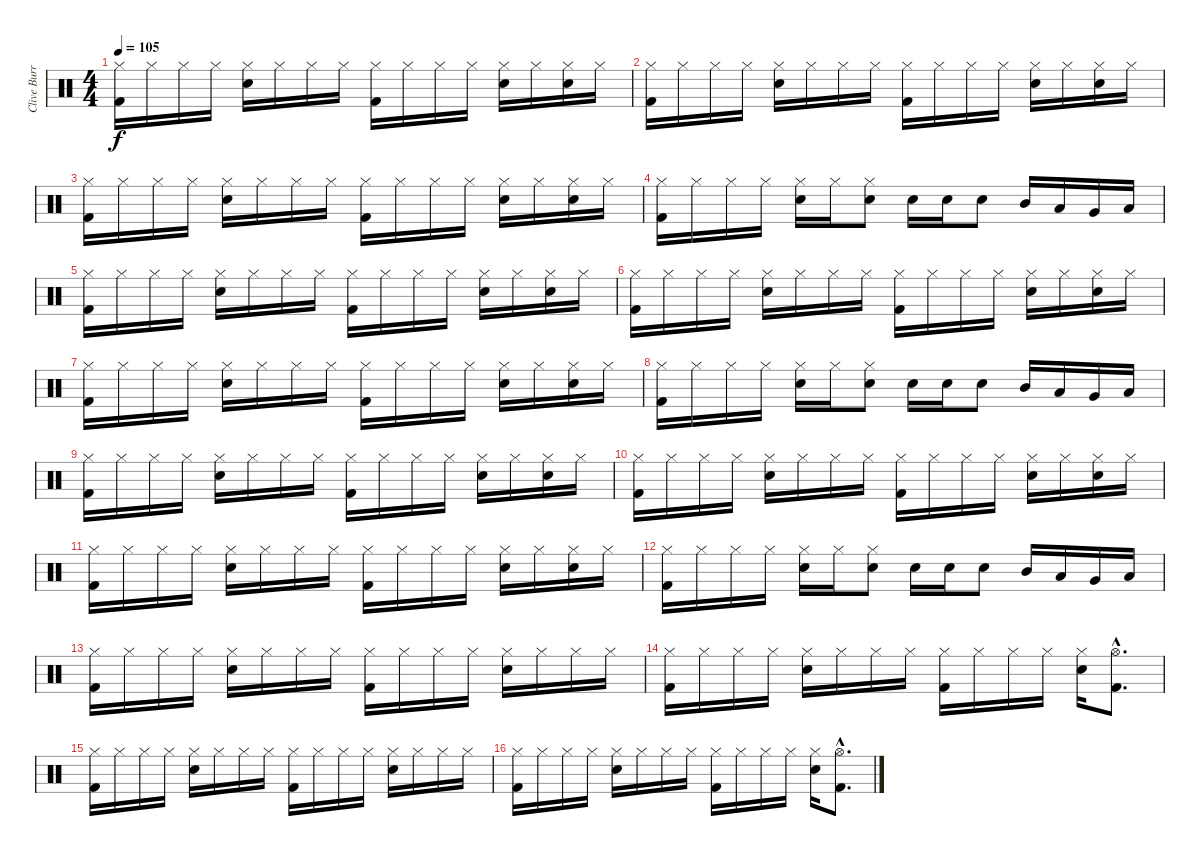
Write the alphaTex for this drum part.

\track ("Clive Burr (Drums)" "Clive Burr") {instrument percussion}
\staff {score}
\articulation defaults
\ts (4 4)
\tempo 105
\clef neutral
\ks c
("Hi-Hat (closed)" "Kick (hit) 2").16{dy f} "Hi-Hat (closed)".16 "Hi-Hat (closed)".16 "Hi-Hat (closed)".16 ("Electric Snare (hit)" "Hi-Hat (closed)").16 "Hi-Hat (closed)".16 "Hi-Hat (closed)".16 "Hi-Hat (closed)".16 ("Hi-Hat (closed)" "Kick (hit) 2").16 "Hi-Hat (closed)".16 "Hi-Hat (closed)".16 "Hi-Hat (closed)".16 ("Electric Snare (hit)" "Hi-Hat (closed)").16 "Hi-Hat (closed)".16 ("Electric Snare (hit)" "Hi-Hat (closed)").16 "Hi-Hat (closed)".16 |
("Hi-Hat (closed)" "Kick (hit) 2").16 "Hi-Hat (closed)".16 "Hi-Hat (closed)".16 "Hi-Hat (closed)".16 ("Electric Snare (hit)" "Hi-Hat (closed)").16 "Hi-Hat (closed)".16 "Hi-Hat (closed)".16 "Hi-Hat (closed)".16 ("Hi-Hat (closed)" "Kick (hit) 2").16 "Hi-Hat (closed)".16 "Hi-Hat (closed)".16 "Hi-Hat (closed)".16 ("Electric Snare (hit)" "Hi-Hat (closed)").16 "Hi-Hat (closed)".16 ("Electric Snare (hit)" "Hi-Hat (closed)").16 "Hi-Hat (closed)".16 |
("Hi-Hat (closed)" "Kick (hit) 2").16 "Hi-Hat (closed)".16 "Hi-Hat (closed)".16 "Hi-Hat (closed)".16 ("Electric Snare (hit)" "Hi-Hat (closed)").16 "Hi-Hat (closed)".16 "Hi-Hat (closed)".16 "Hi-Hat (closed)".16 ("Hi-Hat (closed)" "Kick (hit) 2").16 "Hi-Hat (closed)".16 "Hi-Hat (closed)".16 "Hi-Hat (closed)".16 ("Electric Snare (hit)" "Hi-Hat (closed)").16 "Hi-Hat (closed)".16 ("Electric Snare (hit)" "Hi-Hat (closed)").16 "Hi-Hat (closed)".16 |
("Hi-Hat (closed)" "Kick (hit) 2").16 "Hi-Hat (closed)".16 "Hi-Hat (closed)".16 "Hi-Hat (closed)".16 ("Electric Snare (hit)" "Hi-Hat (closed)").16 "Hi-Hat (closed)".16 ("Electric Snare (hit)" "Hi-Hat (closed)").8 "Electric Snare (hit)".16 "Electric Snare (hit)".16 "Electric Snare (hit)".8 "Mid Tom (hit)".16 "Low Tom (hit)".16 "Very Low Tom (hit)".16 "Low Tom (hit)".16 |
("Hi-Hat (closed)" "Kick (hit) 2").16 "Hi-Hat (closed)".16 "Hi-Hat (closed)".16 "Hi-Hat (closed)".16 ("Electric Snare (hit)" "Hi-Hat (closed)").16 "Hi-Hat (closed)".16 "Hi-Hat (closed)".16 "Hi-Hat (closed)".16 ("Hi-Hat (closed)" "Kick (hit) 2").16 "Hi-Hat (closed)".16 "Hi-Hat (closed)".16 "Hi-Hat (closed)".16 ("Electric Snare (hit)" "Hi-Hat (closed)").16 "Hi-Hat (closed)".16 ("Electric Snare (hit)" "Hi-Hat (closed)").16 "Hi-Hat (closed)".16 |
("Hi-Hat (closed)" "Kick (hit) 2").16 "Hi-Hat (closed)".16 "Hi-Hat (closed)".16 "Hi-Hat (closed)".16 ("Electric Snare (hit)" "Hi-Hat (closed)").16 "Hi-Hat (closed)".16 "Hi-Hat (closed)".16 "Hi-Hat (closed)".16 ("Hi-Hat (closed)" "Kick (hit) 2").16 "Hi-Hat (closed)".16 "Hi-Hat (closed)".16 "Hi-Hat (closed)".16 ("Electric Snare (hit)" "Hi-Hat (closed)").16 "Hi-Hat (closed)".16 ("Electric Snare (hit)" "Hi-Hat (closed)").16 "Hi-Hat (closed)".16 |
("Hi-Hat (closed)" "Kick (hit) 2").16 "Hi-Hat (closed)".16 "Hi-Hat (closed)".16 "Hi-Hat (closed)".16 ("Electric Snare (hit)" "Hi-Hat (closed)").16 "Hi-Hat (closed)".16 "Hi-Hat (closed)".16 "Hi-Hat (closed)".16 ("Hi-Hat (closed)" "Kick (hit) 2").16 "Hi-Hat (closed)".16 "Hi-Hat (closed)".16 "Hi-Hat (closed)".16 ("Electric Snare (hit)" "Hi-Hat (closed)").16 "Hi-Hat (closed)".16 ("Electric Snare (hit)" "Hi-Hat (closed)").16 "Hi-Hat (closed)".16 |
("Hi-Hat (closed)" "Kick (hit) 2").16 "Hi-Hat (closed)".16 "Hi-Hat (closed)".16 "Hi-Hat (closed)".16 ("Electric Snare (hit)" "Hi-Hat (closed)").16 "Hi-Hat (closed)".16 ("Electric Snare (hit)" "Hi-Hat (closed)").8 "Electric Snare (hit)".16 "Electric Snare (hit)".16 "Electric Snare (hit)".8 "Mid Tom (hit)".16 "Low Tom (hit)".16 "Very Low Tom (hit)".16 "Low Tom (hit)".16 |
("Hi-Hat (closed)" "Kick (hit) 2").16 "Hi-Hat (closed)".16 "Hi-Hat (closed)".16 "Hi-Hat (closed)".16 ("Electric Snare (hit)" "Hi-Hat (closed)").16 "Hi-Hat (closed)".16 "Hi-Hat (closed)".16 "Hi-Hat (closed)".16 ("Hi-Hat (closed)" "Kick (hit) 2").16 "Hi-Hat (closed)".16 "Hi-Hat (closed)".16 "Hi-Hat (closed)".16 ("Electric Snare (hit)" "Hi-Hat (closed)").16 "Hi-Hat (closed)".16 ("Electric Snare (hit)" "Hi-Hat (closed)").16 "Hi-Hat (closed)".16 |
("Hi-Hat (closed)" "Kick (hit) 2").16 "Hi-Hat (closed)".16 "Hi-Hat (closed)".16 "Hi-Hat (closed)".16 ("Electric Snare (hit)" "Hi-Hat (closed)").16 "Hi-Hat (closed)".16 "Hi-Hat (closed)".16 "Hi-Hat (closed)".16 ("Hi-Hat (closed)" "Kick (hit) 2").16 "Hi-Hat (closed)".16 "Hi-Hat (closed)".16 "Hi-Hat (closed)".16 ("Electric Snare (hit)" "Hi-Hat (closed)").16 "Hi-Hat (closed)".16 ("Electric Snare (hit)" "Hi-Hat (closed)").16 "Hi-Hat (closed)".16 |
("Hi-Hat (closed)" "Kick (hit) 2").16 "Hi-Hat (closed)".16 "Hi-Hat (closed)".16 "Hi-Hat (closed)".16 ("Electric Snare (hit)" "Hi-Hat (closed)").16 "Hi-Hat (closed)".16 "Hi-Hat (closed)".16 "Hi-Hat (closed)".16 ("Hi-Hat (closed)" "Kick (hit) 2").16 "Hi-Hat (closed)".16 "Hi-Hat (closed)".16 "Hi-Hat (closed)".16 ("Electric Snare (hit)" "Hi-Hat (closed)").16 "Hi-Hat (closed)".16 ("Electric Snare (hit)" "Hi-Hat (closed)").16 "Hi-Hat (closed)".16 |
("Hi-Hat (closed)" "Kick (hit) 2").16 "Hi-Hat (closed)".16 "Hi-Hat (closed)".16 "Hi-Hat (closed)".16 ("Electric Snare (hit)" "Hi-Hat (closed)").16 "Hi-Hat (closed)".16 ("Electric Snare (hit)" "Hi-Hat (closed)").8 "Electric Snare (hit)".16 "Electric Snare (hit)".16 "Electric Snare (hit)".8 "Mid Tom (hit)".16 "Low Tom (hit)".16 "Very Low Tom (hit)".16 "Low Tom (hit)".16 |
\section ("" "")
("Hi-Hat (closed)" "Kick (hit) 2").16 "Hi-Hat (closed)".16 "Hi-Hat (closed)".16 "Hi-Hat (closed)".16 ("Electric Snare (hit)" "Hi-Hat (closed)").16 "Hi-Hat (closed)".16 "Hi-Hat (closed)".16 "Hi-Hat (closed)".16 ("Hi-Hat (closed)" "Kick (hit) 2").16 "Hi-Hat (closed)".16 "Hi-Hat (closed)".16 "Hi-Hat (closed)".16 ("Electric Snare (hit)" "Hi-Hat (closed)").16 "Hi-Hat (closed)".16 "Hi-Hat (closed)".16 "Hi-Hat (closed)".16 |
("Hi-Hat (closed)" "Kick (hit) 2").16 "Hi-Hat (closed)".16 "Hi-Hat (closed)".16 "Hi-Hat (closed)".16 ("Electric Snare (hit)" "Hi-Hat (closed)").16 "Hi-Hat (closed)".16 "Hi-Hat (closed)".16 "Hi-Hat (closed)".16 ("Hi-Hat (closed)" "Kick (hit) 2").16 "Hi-Hat (closed)".16 "Hi-Hat (closed)".16 "Hi-Hat (closed)".16 ("Electric Snare (hit)" "Hi-Hat (closed)").16 ("Hi-Hat (open)"{hac} "Kick (hit) 2"{hac}).8{d} |
("Hi-Hat (closed)" "Kick (hit) 2").16 "Hi-Hat (closed)".16 "Hi-Hat (closed)".16 "Hi-Hat (closed)".16 ("Electric Snare (hit)" "Hi-Hat (closed)").16 "Hi-Hat (closed)".16 "Hi-Hat (closed)".16 "Hi-Hat (closed)".16 ("Hi-Hat (closed)" "Kick (hit) 2").16 "Hi-Hat (closed)".16 "Hi-Hat (closed)".16 "Hi-Hat (closed)".16 ("Electric Snare (hit)" "Hi-Hat (closed)").16 "Hi-Hat (closed)".16 "Hi-Hat (closed)".16 "Hi-Hat (closed)".16 |
("Hi-Hat (closed)" "Kick (hit) 2").16 "Hi-Hat (closed)".16 "Hi-Hat (closed)".16 "Hi-Hat (closed)".16 ("Electric Snare (hit)" "Hi-Hat (closed)").16 "Hi-Hat (closed)".16 "Hi-Hat (closed)".16 "Hi-Hat (closed)".16 ("Hi-Hat (closed)" "Kick (hit) 2").16 "Hi-Hat (closed)".16 "Hi-Hat (closed)".16 "Hi-Hat (closed)".16 ("Electric Snare (hit)" "Hi-Hat (closed)").16 ("Hi-Hat (open)"{hac} "Kick (hit) 2"{hac}).8{d}
